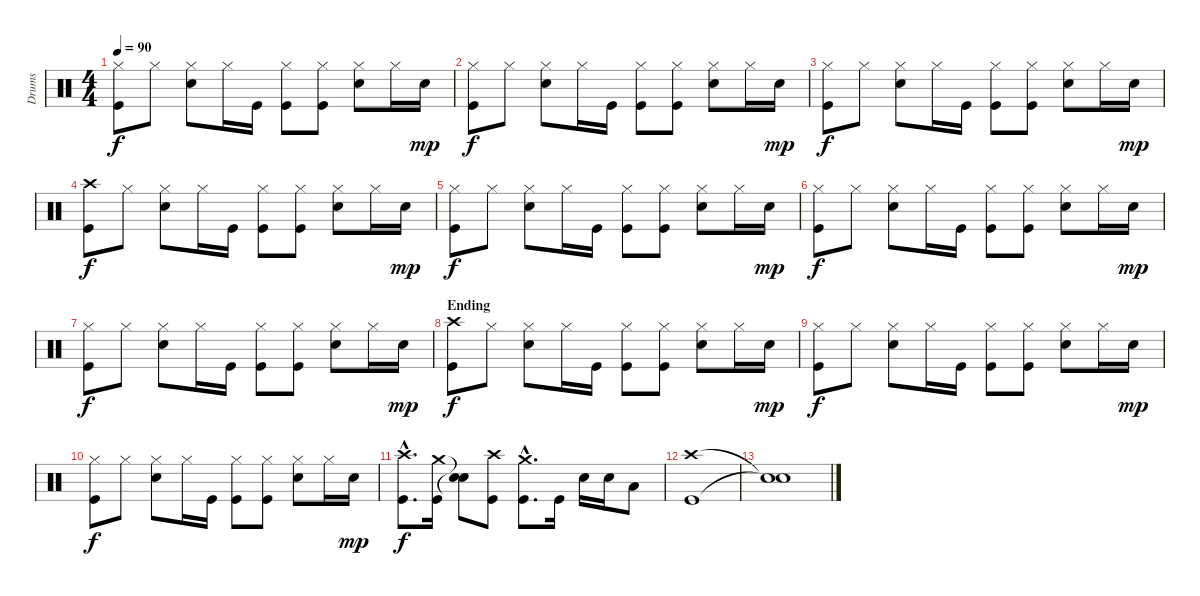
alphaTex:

\track ("Drums" "Drums") {instrument percussion}
\staff {score}
\articulation defaults
\ts (4 4)
\tempo 90
\clef neutral
\ks c
("Hi-Hat (closed)" "Kick (hit)").8{dy f} "Hi-Hat (closed)".8 ("Hi-Hat (closed)" "Snare (hit) 2").8 "Hi-Hat (closed)".16 "Kick (hit)".16 ("Hi-Hat (closed)" "Kick (hit)").8 ("Hi-Hat (closed)" "Kick (hit)").8 ("Hi-Hat (closed)" "Snare (hit) 2").8 "Hi-Hat (closed)".16 "Snare (hit) 2".16{dy mp} |
("Hi-Hat (closed)" "Kick (hit)").8{dy f} "Hi-Hat (closed)".8 ("Hi-Hat (closed)" "Snare (hit) 2").8 "Hi-Hat (closed)".16 "Kick (hit)".16 ("Hi-Hat (closed)" "Kick (hit)").8 ("Hi-Hat (closed)" "Kick (hit)").8 ("Hi-Hat (closed)" "Snare (hit) 2").8 "Hi-Hat (closed)".16 "Snare (hit) 2".16{dy mp} |
("Hi-Hat (closed)" "Kick (hit)").8{dy f} "Hi-Hat (closed)".8 ("Hi-Hat (closed)" "Snare (hit) 2").8 "Hi-Hat (closed)".16 "Kick (hit)".16 ("Hi-Hat (closed)" "Kick (hit)").8 ("Hi-Hat (closed)" "Kick (hit)").8 ("Hi-Hat (closed)" "Snare (hit) 2").8 "Hi-Hat (closed)".16 "Snare (hit) 2".16{dy mp} |
("Crash high (hit)" "Kick (hit)").8{dy f} "Hi-Hat (closed)".8 ("Hi-Hat (closed)" "Snare (hit) 2").8 "Hi-Hat (closed)".16 "Kick (hit)".16 ("Hi-Hat (closed)" "Kick (hit)").8 ("Hi-Hat (closed)" "Kick (hit)").8 ("Hi-Hat (closed)" "Snare (hit) 2").8 "Hi-Hat (closed)".16 "Snare (hit) 2".16{dy mp} |
("Hi-Hat (closed)" "Kick (hit)").8{dy f} "Hi-Hat (closed)".8 ("Hi-Hat (closed)" "Snare (hit) 2").8 "Hi-Hat (closed)".16 "Kick (hit)".16 ("Hi-Hat (closed)" "Kick (hit)").8 ("Hi-Hat (closed)" "Kick (hit)").8 ("Hi-Hat (closed)" "Snare (hit) 2").8 "Hi-Hat (closed)".16 "Snare (hit) 2".16{dy mp} |
("Hi-Hat (closed)" "Kick (hit)").8{dy f} "Hi-Hat (closed)".8 ("Hi-Hat (closed)" "Snare (hit) 2").8 "Hi-Hat (closed)".16 "Kick (hit)".16 ("Hi-Hat (closed)" "Kick (hit)").8 ("Hi-Hat (closed)" "Kick (hit)").8 ("Hi-Hat (closed)" "Snare (hit) 2").8 "Hi-Hat (closed)".16 "Snare (hit) 2".16{dy mp} |
("Hi-Hat (closed)" "Kick (hit)").8{dy f} "Hi-Hat (closed)".8 ("Hi-Hat (closed)" "Snare (hit) 2").8 "Hi-Hat (closed)".16 "Kick (hit)".16 ("Hi-Hat (closed)" "Kick (hit)").8 ("Hi-Hat (closed)" "Kick (hit)").8 ("Hi-Hat (closed)" "Snare (hit) 2").8 "Hi-Hat (closed)".16 "Snare (hit) 2".16{dy mp} |
\section ("" "Ending")
("Crash high (hit)" "Kick (hit)").8{dy f} "Hi-Hat (closed)".8 ("Hi-Hat (closed)" "Snare (hit) 2").8 "Hi-Hat (closed)".16 "Kick (hit)".16 ("Hi-Hat (closed)" "Kick (hit)").8 ("Hi-Hat (closed)" "Kick (hit)").8 ("Hi-Hat (closed)" "Snare (hit) 2").8 "Hi-Hat (closed)".16 "Snare (hit) 2".16{dy mp} |
("Hi-Hat (closed)" "Kick (hit)").8{dy f} "Hi-Hat (closed)".8 ("Hi-Hat (closed)" "Snare (hit) 2").8 "Hi-Hat (closed)".16 "Kick (hit)".16 ("Hi-Hat (closed)" "Kick (hit)").8 ("Hi-Hat (closed)" "Kick (hit)").8 ("Hi-Hat (closed)" "Snare (hit) 2").8 "Hi-Hat (closed)".16 "Snare (hit) 2".16{dy mp} |
("Hi-Hat (closed)" "Kick (hit)").8{dy f} "Hi-Hat (closed)".8 ("Hi-Hat (closed)" "Snare (hit) 2").8 "Hi-Hat (closed)".16 "Kick (hit)".16 ("Hi-Hat (closed)" "Kick (hit)").8 ("Hi-Hat (closed)" "Kick (hit)").8 ("Hi-Hat (closed)" "Snare (hit) 2").8 "Hi-Hat (closed)".16 "Snare (hit) 2".16{dy mp} |
("Crash high (hit)"{hac} "Kick (hit)"{hac}).8{d dy f} ("Crash medium (hit)" "Kick (hit)").16 ("Snare (hit)"{t} "Snare (hit)"{t}).8 ("Crash high (hit)" "Kick (hit)").8 ("Crash medium (hit)"{hac} "Kick (hit)"{hac}).8{d} "Kick (hit)".16 "Snare (hit) 2".16 "Snare (hit) 2".16 "Low Tom (hit)".8 |
("Crash high (hit)" "Kick (hit)").1 |
("Snare (hit)"{t} "Snare (hit)"{t}).1
